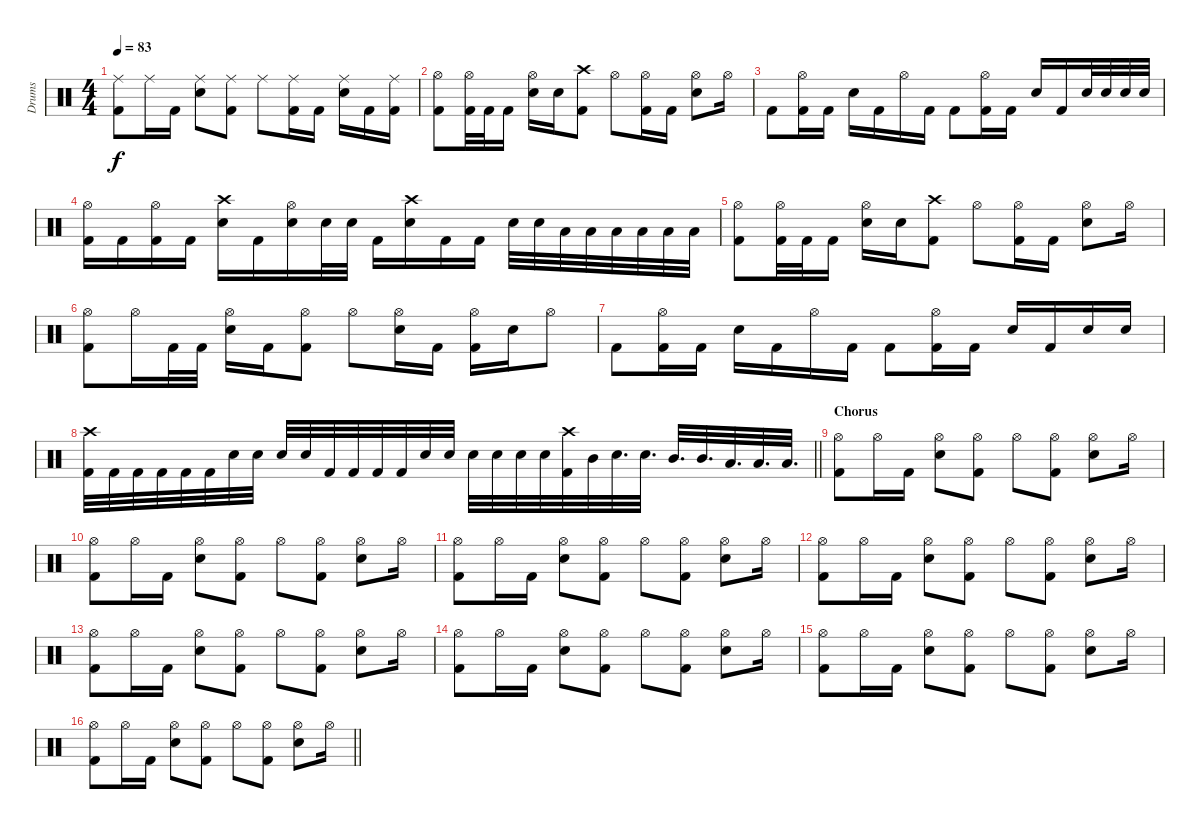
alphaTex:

\track ("Drums" "Drums") {instrument percussion}
\staff {score}
\articulation defaults
\ts (4 4)
\tempo 83
\clef neutral
\ks c
("Ride (middle)" "Kick (hit) 2").8{dy f} "Ride (middle)".16 "Kick (hit) 2".16 ("Ride (middle)" "Snare (hit) 2").8 ("Ride (middle)" "Kick (hit) 2").8 "Ride (middle)".8 ("Ride (middle)" "Kick (hit) 2").16 "Kick (hit) 2".16 ("Ride (middle)" "Snare (hit) 2").16 "Kick (hit) 2".16 ("Ride (middle)" "Kick (hit) 2").16 |
("Hi-Hat (open)" "Kick (hit) 2").8 ("Hi-Hat (open)" "Kick (hit) 2").32 "Kick (hit) 2".32 "Kick (hit) 2".16 ("Hi-Hat (open)" "Snare (hit) 2").16 "Snare (hit) 2".16 ("Crash high (hit)" "Kick (hit) 2").8 "Hi-Hat (open)".8 ("Hi-Hat (open)" "Kick (hit) 2").16 "Kick (hit) 2".16 ("Hi-Hat (open)" "Snare (hit) 2").8 "Hi-Hat (open)".16 |
"Kick (hit) 2".8 ("Hi-Hat (open)" "Kick (hit) 2").16 "Kick (hit) 2".16 "Snare (hit) 2".16 "Kick (hit) 2".16 "Hi-Hat (open)".16 "Kick (hit) 2".16 "Kick (hit) 2".8 ("Hi-Hat (open)" "Kick (hit) 2").16 "Kick (hit) 2".16 "Snare (hit) 2".16 "Kick (hit) 2".16 "Snare (hit) 2".32 "Snare (hit) 2".32 "Snare (hit) 2".32 "Snare (hit) 2".32 |
("Hi-Hat (open)" "Kick (hit) 2").16 "Kick (hit) 2".16 ("Hi-Hat (open)" "Kick (hit) 2").16 "Kick (hit) 2".16 ("Crash high (hit)" "Snare (hit) 2").16 "Kick (hit) 2".16 ("Hi-Hat (open)" "Snare (hit) 2").16 "Snare (hit) 2".32 "Snare (hit) 2".32 "Kick (hit) 2".16 ("Crash high (hit)" "Snare (hit) 2").16 "Kick (hit) 2".16 "Kick (hit) 2".16 "Snare (hit) 2".32 "Snare (hit) 2".32 "Low Tom (hit)".32 "Low Tom (hit)".32 "Low Tom (hit)".32 "Low Floor Tom (hit)".32 "Low Floor Tom (hit)".32 "Low Floor Tom (hit)".32 |
("Hi-Hat (open)" "Kick (hit) 2").8 ("Hi-Hat (open)" "Kick (hit) 2").32 "Kick (hit) 2".32 "Kick (hit) 2".16 ("Hi-Hat (open)" "Snare (hit) 2").16 "Snare (hit) 2".16 ("Crash high (hit)" "Kick (hit) 2").8 "Hi-Hat (open)".8 ("Hi-Hat (open)" "Kick (hit) 2").16 "Kick (hit) 2".16 ("Hi-Hat (open)" "Snare (hit) 2").8 "Hi-Hat (open)".16 |
("Hi-Hat (open)" "Kick (hit) 2").8 "Hi-Hat (open)".16 "Kick (hit) 2".32 "Kick (hit) 2".32 ("Hi-Hat (open)" "Snare (hit) 2").16 "Kick (hit) 2".16 ("Hi-Hat (open)" "Kick (hit) 2").8 "Hi-Hat (open)".8 ("Hi-Hat (open)" "Snare (hit) 2").16 "Kick (hit) 2".16 ("Hi-Hat (open)" "Kick (hit) 2").16 "Snare (hit) 2".16 "Hi-Hat (open)".8 |
"Kick (hit) 2".8 ("Hi-Hat (open)" "Kick (hit) 2").16 "Kick (hit) 2".16 "Snare (hit) 2".16 "Kick (hit) 2".16 "Hi-Hat (open)".16 "Kick (hit) 2".16 "Kick (hit) 2".8 ("Hi-Hat (open)" "Kick (hit) 2").16 "Kick (hit) 2".16 "Snare (hit) 2".16 "Kick (hit) 2".16 "Snare (hit) 2".16 "Snare (hit) 2".16 |
\barLineRight lightlight
("Crash high (hit)" "Kick (hit) 2").32 "Kick (hit) 2".32 "Kick (hit) 2".32 "Kick (hit) 2".32 "Kick (hit) 2".32 "Kick (hit) 2".32 "Snare (hit) 2".32 "Snare (hit) 2".32 "Snare (hit) 2".32 "Snare (hit) 2".32 "Kick (hit) 2".32 "Kick (hit) 2".32 "Kick (hit) 2".32 "Kick (hit) 2".32 "Snare (hit) 2".32 "Snare (hit) 2".32 "Snare (hit) 2".32 "Snare (hit) 2".32 "Snare (hit) 2".32 "Snare (hit) 2".32 ("Crash high (hit)" "Kick (hit) 2").32 "Mid Tom (hit)".32 "Snare (hit) 2".32{d} "Snare (hit) 2".32{d} "Mid Tom (hit)".32{d} "Mid Tom (hit)".32{d} "Low Tom (hit)".32{d} "Low Tom (hit)".32{d} "Low Floor Tom (hit)".32{d} |
\section ("" "Chorus")
("Hi-Hat (open)" "Kick (hit) 2").8 "Hi-Hat (open)".16 "Kick (hit) 2".16 ("Hi-Hat (open)" "Snare (hit) 2").8 ("Hi-Hat (open)" "Kick (hit) 2").8 "Hi-Hat (open)".8 ("Hi-Hat (open)" "Kick (hit) 2").8 ("Hi-Hat (open)" "Snare (hit) 2").8 "Hi-Hat (open)".16 |
("Hi-Hat (open)" "Kick (hit) 2").8 "Hi-Hat (open)".16 "Kick (hit) 2".16 ("Hi-Hat (open)" "Snare (hit) 2").8 ("Hi-Hat (open)" "Kick (hit) 2").8 "Hi-Hat (open)".8 ("Hi-Hat (open)" "Kick (hit) 2").8 ("Hi-Hat (open)" "Snare (hit) 2").8 "Hi-Hat (open)".16 |
("Hi-Hat (open)" "Kick (hit) 2").8 "Hi-Hat (open)".16 "Kick (hit) 2".16 ("Hi-Hat (open)" "Snare (hit) 2").8 ("Hi-Hat (open)" "Kick (hit) 2").8 "Hi-Hat (open)".8 ("Hi-Hat (open)" "Kick (hit) 2").8 ("Hi-Hat (open)" "Snare (hit) 2").8 "Hi-Hat (open)".16 |
("Hi-Hat (open)" "Kick (hit) 2").8 "Hi-Hat (open)".16 "Kick (hit) 2".16 ("Hi-Hat (open)" "Snare (hit) 2").8 ("Hi-Hat (open)" "Kick (hit) 2").8 "Hi-Hat (open)".8 ("Hi-Hat (open)" "Kick (hit) 2").8 ("Hi-Hat (open)" "Snare (hit) 2").8 "Hi-Hat (open)".16 |
("Hi-Hat (open)" "Kick (hit) 2").8 "Hi-Hat (open)".16 "Kick (hit) 2".16 ("Hi-Hat (open)" "Snare (hit) 2").8 ("Hi-Hat (open)" "Kick (hit) 2").8 "Hi-Hat (open)".8 ("Hi-Hat (open)" "Kick (hit) 2").8 ("Hi-Hat (open)" "Snare (hit) 2").8 "Hi-Hat (open)".16 |
("Hi-Hat (open)" "Kick (hit) 2").8 "Hi-Hat (open)".16 "Kick (hit) 2".16 ("Hi-Hat (open)" "Snare (hit) 2").8 ("Hi-Hat (open)" "Kick (hit) 2").8 "Hi-Hat (open)".8 ("Hi-Hat (open)" "Kick (hit) 2").8 ("Hi-Hat (open)" "Snare (hit) 2").8 "Hi-Hat (open)".16 |
("Hi-Hat (open)" "Kick (hit) 2").8 "Hi-Hat (open)".16 "Kick (hit) 2".16 ("Hi-Hat (open)" "Snare (hit) 2").8 ("Hi-Hat (open)" "Kick (hit) 2").8 "Hi-Hat (open)".8 ("Hi-Hat (open)" "Kick (hit) 2").8 ("Hi-Hat (open)" "Snare (hit) 2").8 "Hi-Hat (open)".16 |
\barLineRight lightlight
("Hi-Hat (open)" "Kick (hit) 2").8 "Hi-Hat (open)".16 "Kick (hit) 2".16 ("Hi-Hat (open)" "Snare (hit) 2").8 ("Hi-Hat (open)" "Kick (hit) 2").8 "Hi-Hat (open)".8 ("Hi-Hat (open)" "Kick (hit) 2").8 ("Hi-Hat (open)" "Snare (hit) 2").8 "Hi-Hat (open)".16
